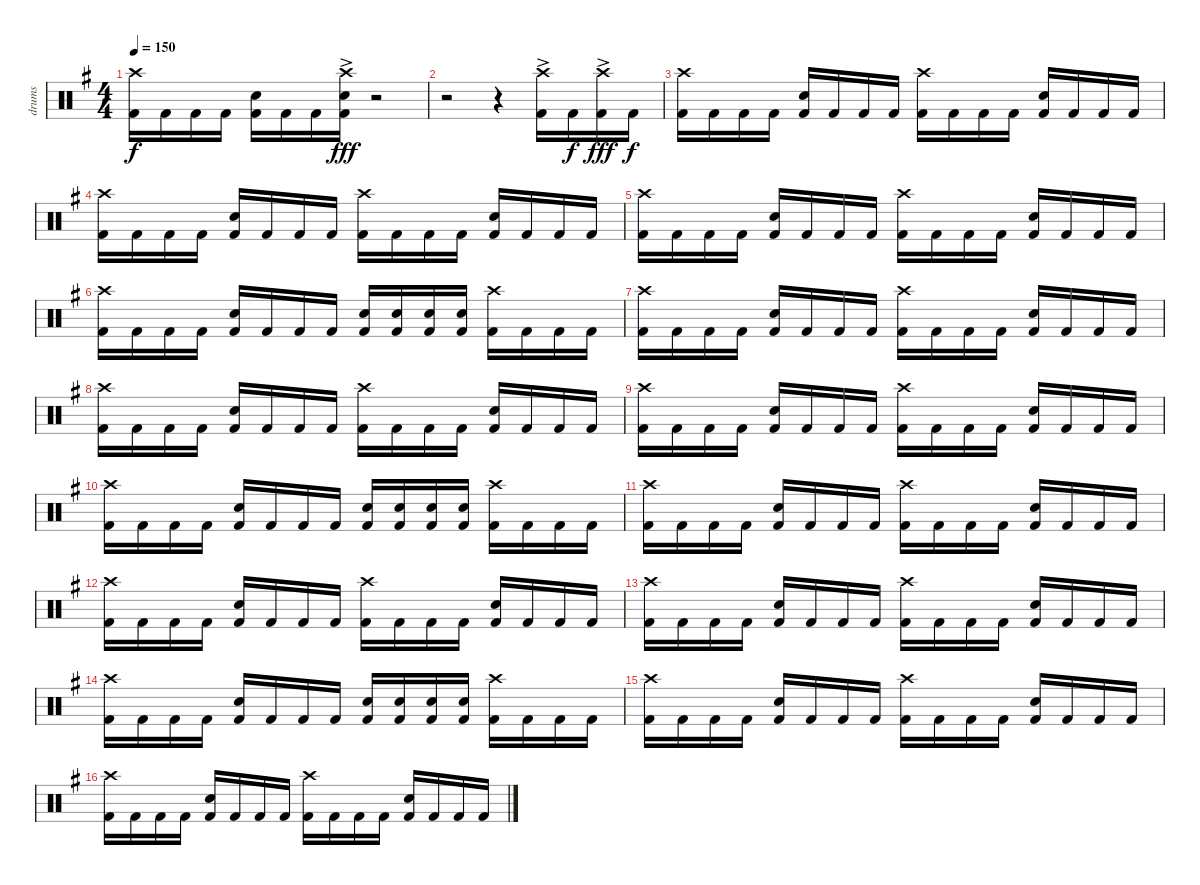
\track ("drums" "drums") {instrument percussion}
\staff {score}
\articulation defaults
\ts (4 4)
\tempo 150
\clef neutral
\ks g
("Crash high (hit)" "Kick (hit) 2").16{dy f} "Kick (hit) 2".16 "Kick (hit) 2".16 "Kick (hit) 2".16 ("Electric Snare (hit)" "Kick (hit) 2").16 "Kick (hit) 2".16 "Kick (hit) 2".16 ("Crash high (hit)"{ac} "Electric Snare (hit)"{ac} "Kick (hit) 2").16{dy fff} r.2 |
r.2 r.4 ("Crash high (hit)"{ac} "Kick (hit) 2").16 "Kick (hit) 2".16{dy f} ("Crash high (hit)"{ac} "Kick (hit) 2").16{dy fff} "Kick (hit) 2".16{dy f} |
("Crash high (hit)" "Kick (hit) 2").16 "Kick (hit) 2".16 "Kick (hit) 2".16 "Kick (hit) 2".16 ("Electric Snare (hit)" "Kick (hit) 2").16 "Kick (hit) 2".16 "Kick (hit) 2".16 "Kick (hit) 2".16 ("Crash high (hit)" "Kick (hit) 2").16 "Kick (hit) 2".16 "Kick (hit) 2".16 "Kick (hit) 2".16 ("Electric Snare (hit)" "Kick (hit) 2").16 "Kick (hit) 2".16 "Kick (hit) 2".16 "Kick (hit) 2".16 |
("Crash high (hit)" "Kick (hit) 2").16 "Kick (hit) 2".16 "Kick (hit) 2".16 "Kick (hit) 2".16 ("Electric Snare (hit)" "Kick (hit) 2").16 "Kick (hit) 2".16 "Kick (hit) 2".16 "Kick (hit) 2".16 ("Crash high (hit)" "Kick (hit) 2").16 "Kick (hit) 2".16 "Kick (hit) 2".16 "Kick (hit) 2".16 ("Electric Snare (hit)" "Kick (hit) 2").16 "Kick (hit) 2".16 "Kick (hit) 2".16 "Kick (hit) 2".16 |
("Crash high (hit)" "Kick (hit) 2").16 "Kick (hit) 2".16 "Kick (hit) 2".16 "Kick (hit) 2".16 ("Electric Snare (hit)" "Kick (hit) 2").16 "Kick (hit) 2".16 "Kick (hit) 2".16 "Kick (hit) 2".16 ("Crash high (hit)" "Kick (hit) 2").16 "Kick (hit) 2".16 "Kick (hit) 2".16 "Kick (hit) 2".16 ("Electric Snare (hit)" "Kick (hit) 2").16 "Kick (hit) 2".16 "Kick (hit) 2".16 "Kick (hit) 2".16 |
("Crash high (hit)" "Kick (hit) 2").16 "Kick (hit) 2".16 "Kick (hit) 2".16 "Kick (hit) 2".16 ("Electric Snare (hit)" "Kick (hit) 2").16 "Kick (hit) 2".16 "Kick (hit) 2".16 "Kick (hit) 2".16 ("Electric Snare (hit)" "Kick (hit) 2").16 ("Electric Snare (hit)" "Kick (hit) 2").16 ("Electric Snare (hit)" "Kick (hit) 2").16 ("Electric Snare (hit)" "Kick (hit) 2").16 ("Crash high (hit)" "Kick (hit) 2").16 "Kick (hit) 2".16 "Kick (hit) 2".16 "Kick (hit) 2".16 |
("Crash high (hit)" "Kick (hit) 2").16 "Kick (hit) 2".16 "Kick (hit) 2".16 "Kick (hit) 2".16 ("Electric Snare (hit)" "Kick (hit) 2").16 "Kick (hit) 2".16 "Kick (hit) 2".16 "Kick (hit) 2".16 ("Crash high (hit)" "Kick (hit) 2").16 "Kick (hit) 2".16 "Kick (hit) 2".16 "Kick (hit) 2".16 ("Electric Snare (hit)" "Kick (hit) 2").16 "Kick (hit) 2".16 "Kick (hit) 2".16 "Kick (hit) 2".16 |
("Crash high (hit)" "Kick (hit) 2").16 "Kick (hit) 2".16 "Kick (hit) 2".16 "Kick (hit) 2".16 ("Electric Snare (hit)" "Kick (hit) 2").16 "Kick (hit) 2".16 "Kick (hit) 2".16 "Kick (hit) 2".16 ("Crash high (hit)" "Kick (hit) 2").16 "Kick (hit) 2".16 "Kick (hit) 2".16 "Kick (hit) 2".16 ("Electric Snare (hit)" "Kick (hit) 2").16 "Kick (hit) 2".16 "Kick (hit) 2".16 "Kick (hit) 2".16 |
("Crash high (hit)" "Kick (hit) 2").16 "Kick (hit) 2".16 "Kick (hit) 2".16 "Kick (hit) 2".16 ("Electric Snare (hit)" "Kick (hit) 2").16 "Kick (hit) 2".16 "Kick (hit) 2".16 "Kick (hit) 2".16 ("Crash high (hit)" "Kick (hit) 2").16 "Kick (hit) 2".16 "Kick (hit) 2".16 "Kick (hit) 2".16 ("Electric Snare (hit)" "Kick (hit) 2").16 "Kick (hit) 2".16 "Kick (hit) 2".16 "Kick (hit) 2".16 |
("Crash high (hit)" "Kick (hit) 2").16 "Kick (hit) 2".16 "Kick (hit) 2".16 "Kick (hit) 2".16 ("Electric Snare (hit)" "Kick (hit) 2").16 "Kick (hit) 2".16 "Kick (hit) 2".16 "Kick (hit) 2".16 ("Electric Snare (hit)" "Kick (hit) 2").16 ("Electric Snare (hit)" "Kick (hit) 2").16 ("Electric Snare (hit)" "Kick (hit) 2").16 ("Electric Snare (hit)" "Kick (hit) 2").16 ("Crash high (hit)" "Kick (hit) 2").16 "Kick (hit) 2".16 "Kick (hit) 2".16 "Kick (hit) 2".16 |
("Crash high (hit)" "Kick (hit) 2").16 "Kick (hit) 2".16 "Kick (hit) 2".16 "Kick (hit) 2".16 ("Electric Snare (hit)" "Kick (hit) 2").16 "Kick (hit) 2".16 "Kick (hit) 2".16 "Kick (hit) 2".16 ("Crash high (hit)" "Kick (hit) 2").16 "Kick (hit) 2".16 "Kick (hit) 2".16 "Kick (hit) 2".16 ("Electric Snare (hit)" "Kick (hit) 2").16 "Kick (hit) 2".16 "Kick (hit) 2".16 "Kick (hit) 2".16 |
("Crash high (hit)" "Kick (hit) 2").16 "Kick (hit) 2".16 "Kick (hit) 2".16 "Kick (hit) 2".16 ("Electric Snare (hit)" "Kick (hit) 2").16 "Kick (hit) 2".16 "Kick (hit) 2".16 "Kick (hit) 2".16 ("Crash high (hit)" "Kick (hit) 2").16 "Kick (hit) 2".16 "Kick (hit) 2".16 "Kick (hit) 2".16 ("Electric Snare (hit)" "Kick (hit) 2").16 "Kick (hit) 2".16 "Kick (hit) 2".16 "Kick (hit) 2".16 |
("Crash high (hit)" "Kick (hit) 2").16 "Kick (hit) 2".16 "Kick (hit) 2".16 "Kick (hit) 2".16 ("Electric Snare (hit)" "Kick (hit) 2").16 "Kick (hit) 2".16 "Kick (hit) 2".16 "Kick (hit) 2".16 ("Crash high (hit)" "Kick (hit) 2").16 "Kick (hit) 2".16 "Kick (hit) 2".16 "Kick (hit) 2".16 ("Electric Snare (hit)" "Kick (hit) 2").16 "Kick (hit) 2".16 "Kick (hit) 2".16 "Kick (hit) 2".16 |
("Crash high (hit)" "Kick (hit) 2").16 "Kick (hit) 2".16 "Kick (hit) 2".16 "Kick (hit) 2".16 ("Electric Snare (hit)" "Kick (hit) 2").16 "Kick (hit) 2".16 "Kick (hit) 2".16 "Kick (hit) 2".16 ("Electric Snare (hit)" "Kick (hit) 2").16 ("Electric Snare (hit)" "Kick (hit) 2").16 ("Electric Snare (hit)" "Kick (hit) 2").16 ("Electric Snare (hit)" "Kick (hit) 2").16 ("Crash high (hit)" "Kick (hit) 2").16 "Kick (hit) 2".16 "Kick (hit) 2".16 "Kick (hit) 2".16 |
("Crash high (hit)" "Kick (hit) 2").16 "Kick (hit) 2".16 "Kick (hit) 2".16 "Kick (hit) 2".16 ("Electric Snare (hit)" "Kick (hit) 2").16 "Kick (hit) 2".16 "Kick (hit) 2".16 "Kick (hit) 2".16 ("Crash high (hit)" "Kick (hit) 2").16 "Kick (hit) 2".16 "Kick (hit) 2".16 "Kick (hit) 2".16 ("Electric Snare (hit)" "Kick (hit) 2").16 "Kick (hit) 2".16 "Kick (hit) 2".16 "Kick (hit) 2".16 |
("Crash high (hit)" "Kick (hit) 2").16 "Kick (hit) 2".16 "Kick (hit) 2".16 "Kick (hit) 2".16 ("Electric Snare (hit)" "Kick (hit) 2").16 "Kick (hit) 2".16 "Kick (hit) 2".16 "Kick (hit) 2".16 ("Crash high (hit)" "Kick (hit) 2").16 "Kick (hit) 2".16 "Kick (hit) 2".16 "Kick (hit) 2".16 ("Electric Snare (hit)" "Kick (hit) 2").16 "Kick (hit) 2".16 "Kick (hit) 2".16 "Kick (hit) 2".16
